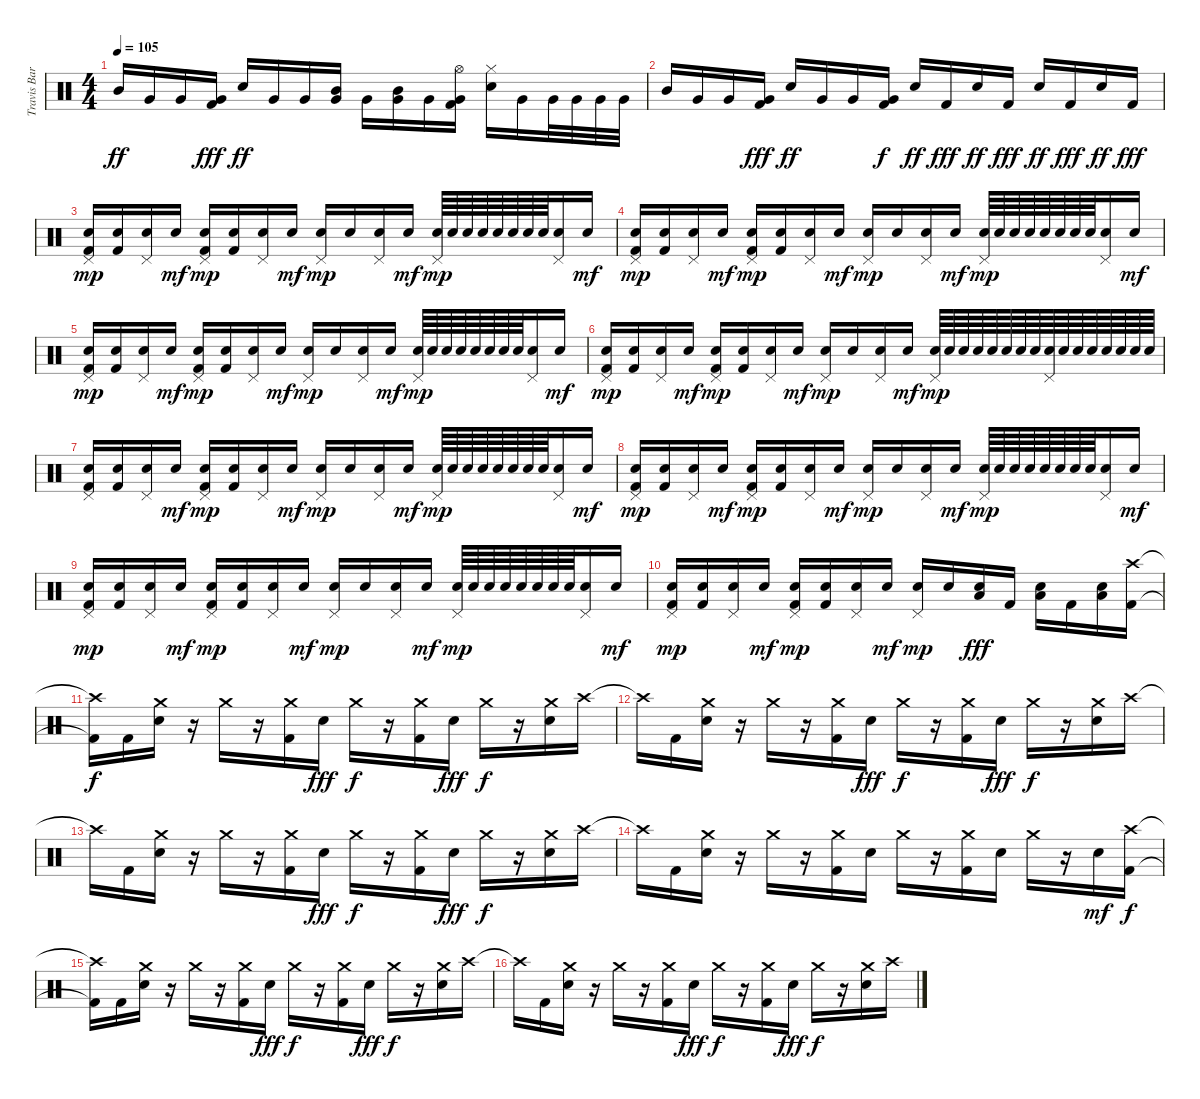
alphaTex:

\track ("Travis Barker" "Travis Bar") {instrument percussion}
\staff {score}
\articulation defaults
\ts (4 4)
\tempo 105
\clef neutral
\ks c "Mid Tom (hit)".16{dy ff} "Very Low Tom (hit)".16 "Very Low Tom (hit)".16
("Very Low Tom (hit)" "Kick (hit) 2").16{dy fff} "Electric Snare (hit)".16{dy ff} "Very Low Tom (hit)".16 "Very Low Tom (hit)".16 ("Mid Tom (hit)" "Very Low Tom (hit)").16 "Very Low Tom (hit)".16 ("Mid Tom (hit)" "Very Low Tom (hit)").16 "Very Low Tom (hit)".16 ("Hi-Hat (open)" "Very Low Tom (hit)" "Kick (hit) 2").16 ("Hi-Hat (closed)" "Electric Snare (hit)").16 "Very Low Tom (hit)".16 "Very Low Tom (hit)".32 "Very Low Tom (hit)".32 "Very Low Tom (hit)".32 "Very Low Tom (hit)".32 |
"Mid Tom (hit)".16 "Very Low Tom (hit)".16 "Very Low Tom (hit)".16 ("Very Low Tom (hit)" "Kick (hit) 2").16{dy fff} "Electric Snare (hit)".16{dy ff} "Very Low Tom (hit)".16 "Very Low Tom (hit)".16 ("Very Low Tom (hit)" "Kick (hit) 2").16{dy f} "Electric Snare (hit)".16{dy ff} "Kick (hit) 2".16{dy fff} "Electric Snare (hit)".16{dy ff} "Kick (hit) 2".16{dy fff} "Electric Snare (hit)".16{dy ff} "Kick (hit) 2".16{dy fff} "Electric Snare (hit)".16{dy ff} "Kick (hit) 2".16{dy fff} |
("Pedal Hi-Hat (hit)" "Electric Snare (hit)" "Kick (hit) 2").16{dy mp} ("Electric Snare (hit)" "Kick (hit) 2").16 ("Pedal Hi-Hat (hit)" "Electric Snare (hit)").16 "Electric Snare (hit)".16{dy mf} ("Pedal Hi-Hat (hit)" "Electric Snare (hit)" "Kick (hit) 2").16{dy mp} ("Electric Snare (hit)" "Kick (hit) 2").16 ("Pedal Hi-Hat (hit)" "Electric Snare (hit)").16 "Electric Snare (hit)".16{dy mf} ("Pedal Hi-Hat (hit)" "Electric Snare (hit)").16{dy mp} "Electric Snare (hit)".16 ("Pedal Hi-Hat (hit)" "Electric Snare (hit)").16 "Electric Snare (hit)".16{dy mf} ("Pedal Hi-Hat (hit)" "Electric Snare (hit)").64{dy mp} "Electric Snare (hit)".64 "Electric Snare (hit)".64 "Electric Snare (hit)".64 "Electric Snare (hit)".64 "Electric Snare (hit)".64 "Electric Snare (hit)".64 "Electric Snare (hit)".64 ("Pedal Hi-Hat (hit)" "Electric Snare (hit)").16 "Electric Snare (hit)".16{dy mf} |
("Pedal Hi-Hat (hit)" "Electric Snare (hit)" "Kick (hit) 2").16{dy mp} ("Electric Snare (hit)" "Kick (hit) 2").16 ("Pedal Hi-Hat (hit)" "Electric Snare (hit)").16 "Electric Snare (hit)".16{dy mf} ("Pedal Hi-Hat (hit)" "Electric Snare (hit)" "Kick (hit) 2").16{dy mp} ("Electric Snare (hit)" "Kick (hit) 2").16 ("Pedal Hi-Hat (hit)" "Electric Snare (hit)").16 "Electric Snare (hit)".16{dy mf} ("Pedal Hi-Hat (hit)" "Electric Snare (hit)").16{dy mp} "Electric Snare (hit)".16 ("Pedal Hi-Hat (hit)" "Electric Snare (hit)").16 "Electric Snare (hit)".16{dy mf} ("Pedal Hi-Hat (hit)" "Electric Snare (hit)").64{dy mp} "Electric Snare (hit)".64 "Electric Snare (hit)".64 "Electric Snare (hit)".64 "Electric Snare (hit)".64 "Electric Snare (hit)".64 "Electric Snare (hit)".64 "Electric Snare (hit)".64 ("Pedal Hi-Hat (hit)" "Electric Snare (hit)").16 "Electric Snare (hit)".16{dy mf} |
("Pedal Hi-Hat (hit)" "Electric Snare (hit)" "Kick (hit) 2").16{dy mp} ("Electric Snare (hit)" "Kick (hit) 2").16 ("Pedal Hi-Hat (hit)" "Electric Snare (hit)").16 "Electric Snare (hit)".16{dy mf} ("Pedal Hi-Hat (hit)" "Electric Snare (hit)" "Kick (hit) 2").16{dy mp} ("Electric Snare (hit)" "Kick (hit) 2").16 ("Pedal Hi-Hat (hit)" "Electric Snare (hit)").16 "Electric Snare (hit)".16{dy mf} ("Pedal Hi-Hat (hit)" "Electric Snare (hit)").16{dy mp} "Electric Snare (hit)".16 ("Pedal Hi-Hat (hit)" "Electric Snare (hit)").16 "Electric Snare (hit)".16{dy mf} ("Pedal Hi-Hat (hit)" "Electric Snare (hit)").64{dy mp} "Electric Snare (hit)".64 "Electric Snare (hit)".64 "Electric Snare (hit)".64 "Electric Snare (hit)".64 "Electric Snare (hit)".64 "Electric Snare (hit)".64 "Electric Snare (hit)".64 ("Pedal Hi-Hat (hit)" "Electric Snare (hit)").16 "Electric Snare (hit)".16{dy mf} |
("Pedal Hi-Hat (hit)" "Electric Snare (hit)" "Kick (hit) 2").16{dy mp} ("Electric Snare (hit)" "Kick (hit) 2").16 ("Pedal Hi-Hat (hit)" "Electric Snare (hit)").16 "Electric Snare (hit)".16{dy mf} ("Pedal Hi-Hat (hit)" "Electric Snare (hit)" "Kick (hit) 2").16{dy mp} ("Electric Snare (hit)" "Kick (hit) 2").16 ("Pedal Hi-Hat (hit)" "Electric Snare (hit)").16 "Electric Snare (hit)".16{dy mf} ("Pedal Hi-Hat (hit)" "Electric Snare (hit)").16{dy mp} "Electric Snare (hit)".16 ("Pedal Hi-Hat (hit)" "Electric Snare (hit)").16 "Electric Snare (hit)".16{dy mf} ("Pedal Hi-Hat (hit)" "Electric Snare (hit)").64{dy mp} "Electric Snare (hit)".64 "Electric Snare (hit)".64 "Electric Snare (hit)".64 "Electric Snare (hit)".64 "Electric Snare (hit)".64 "Electric Snare (hit)".64 "Electric Snare (hit)".64 ("Pedal Hi-Hat (hit)" "Electric Snare (hit)").64 "Electric Snare (hit)".64 "Electric Snare (hit)".64 "Electric Snare (hit)".64 "Electric Snare (hit)".64 "Electric Snare (hit)".64 "Electric Snare (hit)".64 "Electric Snare (hit)".64 |
("Pedal Hi-Hat (hit)" "Electric Snare (hit)" "Kick (hit) 2").16 ("Electric Snare (hit)" "Kick (hit) 2").16 ("Pedal Hi-Hat (hit)" "Electric Snare (hit)").16 "Electric Snare (hit)".16{dy mf} ("Pedal Hi-Hat (hit)" "Electric Snare (hit)" "Kick (hit) 2").16{dy mp} ("Electric Snare (hit)" "Kick (hit) 2").16 ("Pedal Hi-Hat (hit)" "Electric Snare (hit)").16 "Electric Snare (hit)".16{dy mf} ("Pedal Hi-Hat (hit)" "Electric Snare (hit)").16{dy mp} "Electric Snare (hit)".16 ("Pedal Hi-Hat (hit)" "Electric Snare (hit)").16 "Electric Snare (hit)".16{dy mf} ("Pedal Hi-Hat (hit)" "Electric Snare (hit)").64{dy mp} "Electric Snare (hit)".64 "Electric Snare (hit)".64 "Electric Snare (hit)".64 "Electric Snare (hit)".64 "Electric Snare (hit)".64 "Electric Snare (hit)".64 "Electric Snare (hit)".64 ("Pedal Hi-Hat (hit)" "Electric Snare (hit)").16 "Electric Snare (hit)".16{dy mf} |
("Pedal Hi-Hat (hit)" "Electric Snare (hit)" "Kick (hit) 2").16{dy mp} ("Electric Snare (hit)" "Kick (hit) 2").16 ("Pedal Hi-Hat (hit)" "Electric Snare (hit)").16 "Electric Snare (hit)".16{dy mf} ("Pedal Hi-Hat (hit)" "Electric Snare (hit)" "Kick (hit) 2").16{dy mp} ("Electric Snare (hit)" "Kick (hit) 2").16 ("Pedal Hi-Hat (hit)" "Electric Snare (hit)").16 "Electric Snare (hit)".16{dy mf} ("Pedal Hi-Hat (hit)" "Electric Snare (hit)").16{dy mp} "Electric Snare (hit)".16 ("Pedal Hi-Hat (hit)" "Electric Snare (hit)").16 "Electric Snare (hit)".16{dy mf} ("Pedal Hi-Hat (hit)" "Electric Snare (hit)").64{dy mp} "Electric Snare (hit)".64 "Electric Snare (hit)".64 "Electric Snare (hit)".64 "Electric Snare (hit)".64 "Electric Snare (hit)".64 "Electric Snare (hit)".64 "Electric Snare (hit)".64 ("Pedal Hi-Hat (hit)" "Electric Snare (hit)").16 "Electric Snare (hit)".16{dy mf} |
("Pedal Hi-Hat (hit)" "Electric Snare (hit)" "Kick (hit) 2").16{dy mp} ("Electric Snare (hit)" "Kick (hit) 2").16 ("Pedal Hi-Hat (hit)" "Electric Snare (hit)").16 "Electric Snare (hit)".16{dy mf} ("Pedal Hi-Hat (hit)" "Electric Snare (hit)" "Kick (hit) 2").16{dy mp} ("Electric Snare (hit)" "Kick (hit) 2").16 ("Pedal Hi-Hat (hit)" "Electric Snare (hit)").16 "Electric Snare (hit)".16{dy mf} ("Pedal Hi-Hat (hit)" "Electric Snare (hit)").16{dy mp} "Electric Snare (hit)".16 ("Pedal Hi-Hat (hit)" "Electric Snare (hit)").16 "Electric Snare (hit)".16{dy mf} ("Pedal Hi-Hat (hit)" "Electric Snare (hit)").64{dy mp} "Electric Snare (hit)".64 "Electric Snare (hit)".64 "Electric Snare (hit)".64 "Electric Snare (hit)".64 "Electric Snare (hit)".64 "Electric Snare (hit)".64 "Electric Snare (hit)".64 ("Pedal Hi-Hat (hit)" "Electric Snare (hit)").16 "Electric Snare (hit)".16{dy mf} |
("Pedal Hi-Hat (hit)" "Electric Snare (hit)" "Kick (hit) 2").16{dy mp} ("Electric Snare (hit)" "Kick (hit) 2").16 ("Pedal Hi-Hat (hit)" "Electric Snare (hit)").16 "Electric Snare (hit)".16{dy mf} ("Pedal Hi-Hat (hit)" "Electric Snare (hit)" "Kick (hit) 2").16{dy mp} ("Electric Snare (hit)" "Kick (hit) 2").16 ("Pedal Hi-Hat (hit)" "Electric Snare (hit)").16 "Electric Snare (hit)".16{dy mf} ("Pedal Hi-Hat (hit)" "Electric Snare (hit)").16{dy mp} "Electric Snare (hit)".16 ("Low Tom (hit)" "Electric Snare (hit)").16{dy fff} "Kick (hit) 2".16 ("Low Tom (hit)" "Electric Snare (hit)").16 "Kick (hit) 2".16 ("Low Tom (hit)" "Electric Snare (hit)").16 ("Crash high (hit)" "Kick (hit) 2").16 |
("Crash high (hit)"{t} "Kick (hit) 2"{t}).16{dy f} "Kick (hit) 2".16 ("Crash medium (hit)" "Electric Snare (hit)").16 r.16 "Crash medium (hit)".16 r.16 ("Crash medium (hit)" "Kick (hit) 2").16 "Electric Snare (hit)".16{dy fff} "Crash medium (hit)".16{dy f} r.16 ("Crash medium (hit)" "Kick (hit) 2").16 "Electric Snare (hit)".16{dy fff} "Crash medium (hit)".16{dy f} r.16 ("Crash medium (hit)" "Electric Snare (hit)").16 "Crash high (hit)".16 |
"Crash high (hit)"{t}.16 "Kick (hit) 2".16 ("Crash medium (hit)" "Electric Snare (hit)").16 r.16 "Crash medium (hit)".16 r.16 ("Crash medium (hit)" "Kick (hit) 2").16 "Electric Snare (hit)".16{dy fff} "Crash medium (hit)".16{dy f} r.16 ("Crash medium (hit)" "Kick (hit) 2").16 "Electric Snare (hit)".16{dy fff} "Crash medium (hit)".16{dy f} r.16 ("Crash medium (hit)" "Electric Snare (hit)").16 "Crash high (hit)".16 |
"Crash high (hit)"{t}.16 "Kick (hit) 2".16 ("Crash medium (hit)" "Electric Snare (hit)").16 r.16 "Crash medium (hit)".16 r.16 ("Crash medium (hit)" "Kick (hit) 2").16 "Electric Snare (hit)".16{dy fff} "Crash medium (hit)".16{dy f} r.16 ("Crash medium (hit)" "Kick (hit) 2").16 "Electric Snare (hit)".16{dy fff} "Crash medium (hit)".16{dy f} r.16 ("Crash medium (hit)" "Electric Snare (hit)").16 "Crash high (hit)".16 |
"Crash high (hit)"{t}.16 "Kick (hit) 2".16 ("Crash medium (hit)" "Electric Snare (hit)").16 r.16 "Crash medium (hit)".16 r.16 ("Crash medium (hit)" "Kick (hit) 2").16 "Electric Snare (hit)".16 "Crash medium (hit)".16 r.16 ("Crash medium (hit)" "Kick (hit) 2").16 "Electric Snare (hit)".16 "Crash medium (hit)".16 r.16 "Electric Snare (hit)".16{dy mf} ("Crash high (hit)" "Kick (hit) 2").16{dy f} |
("Crash high (hit)"{t} "Kick (hit) 2"{t}).16 "Kick (hit) 2".16 ("Crash medium (hit)" "Electric Snare (hit)").16 r.16 "Crash medium (hit)".16 r.16 ("Crash medium (hit)" "Kick (hit) 2").16 "Electric Snare (hit)".16{dy fff} "Crash medium (hit)".16{dy f} r.16 ("Crash medium (hit)" "Kick (hit) 2").16 "Electric Snare (hit)".16{dy fff} "Crash medium (hit)".16{dy f} r.16 ("Crash medium (hit)" "Electric Snare (hit)").16 "Crash high (hit)".16 |
"Crash high (hit)"{t}.16 "Kick (hit) 2".16 ("Crash medium (hit)" "Electric Snare (hit)").16 r.16 "Crash medium (hit)".16 r.16 ("Crash medium (hit)" "Kick (hit) 2").16 "Electric Snare (hit)".16{dy fff} "Crash medium (hit)".16{dy f} r.16 ("Crash medium (hit)" "Kick (hit) 2").16 "Electric Snare (hit)".16{dy fff} "Crash medium (hit)".16{dy f} r.16 ("Crash medium (hit)" "Electric Snare (hit)").16 "Crash high (hit)".16
